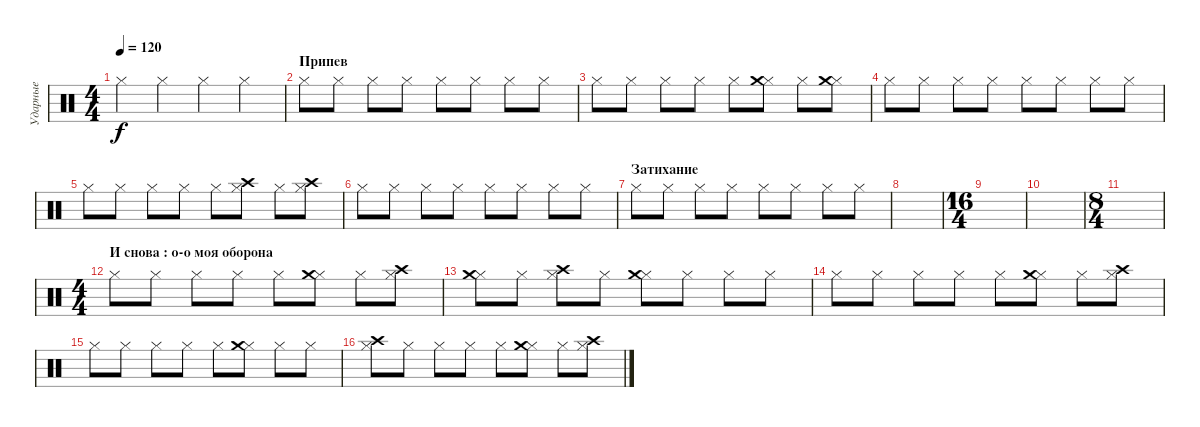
\track ("Ударные" "Ударные") {instrument percussion}
\staff {score}
\articulation defaults
\ts (4 4)
\tempo 120
\clef neutral
\ks c "Hi-Hat (closed)".4{dy f} "Hi-Hat (closed)".4 "Hi-Hat (closed)".4 "Hi-Hat (closed)".4
|
\section ("" "Припев")
"Hi-Hat (closed)".8 "Hi-Hat (closed)".8 "Hi-Hat (closed)".8 "Hi-Hat (closed)".8 "Hi-Hat (closed)".8 "Hi-Hat (closed)".8 "Hi-Hat (closed)".8 "Hi-Hat (closed)".8 |
"Hi-Hat (closed)".8 "Hi-Hat (closed)".8 "Hi-Hat (closed)".8 "Hi-Hat (closed)".8 "Hi-Hat (closed)".8 ("Hi-Hat (closed)" "Crash medium (hit)").8 "Hi-Hat (closed)".8 ("Hi-Hat (closed)" "Crash medium (hit)").8 |
"Hi-Hat (closed)".8 "Hi-Hat (closed)".8 "Hi-Hat (closed)".8 "Hi-Hat (closed)".8 "Hi-Hat (closed)".8 "Hi-Hat (closed)".8 "Hi-Hat (closed)".8 "Hi-Hat (closed)".8 |
"Hi-Hat (closed)".8 "Hi-Hat (closed)".8 "Hi-Hat (closed)".8 "Hi-Hat (closed)".8 "Hi-Hat (closed)".8 ("Hi-Hat (closed)" "Crash high (hit)").8 "Hi-Hat (closed)".8 ("Hi-Hat (closed)" "Crash high (hit)").8 |
"Hi-Hat (closed)".8 "Hi-Hat (closed)".8 "Hi-Hat (closed)".8 "Hi-Hat (closed)".8 "Hi-Hat (closed)".8 "Hi-Hat (closed)".8 "Hi-Hat (closed)".8 "Hi-Hat (closed)".8 |
\section ("" "Затихание")
"Hi-Hat (closed)".8 "Hi-Hat (closed)".8 "Hi-Hat (closed)".8 "Hi-Hat (closed)".8 "Hi-Hat (closed)".8 "Hi-Hat (closed)".8 "Hi-Hat (closed)".8 "Hi-Hat (closed)".8 |
|
\ts (16 4)
|
|
\ts (8 4)
|
\ts (4 4)
\section ("" "И снова : о-о моя оборона")
"Hi-Hat (closed)".8 "Hi-Hat (closed)".8 "Hi-Hat (closed)".8 "Hi-Hat (closed)".8 "Hi-Hat (closed)".8 ("Hi-Hat (closed)" "Crash medium (hit)").8 "Hi-Hat (closed)".8 ("Hi-Hat (closed)" "Crash high (hit)").8 |
("Hi-Hat (closed)" "Crash medium (hit)").8 "Hi-Hat (closed)".8 ("Hi-Hat (closed)" "Crash high (hit)").8 "Hi-Hat (closed)".8 ("Hi-Hat (closed)" "Crash medium (hit)").8 "Hi-Hat (closed)".8 "Hi-Hat (closed)".8 "Hi-Hat (closed)".8 |
"Hi-Hat (closed)".8 "Hi-Hat (closed)".8 "Hi-Hat (closed)".8 "Hi-Hat (closed)".8 "Hi-Hat (closed)".8 ("Hi-Hat (closed)" "Crash medium (hit)").8 "Hi-Hat (closed)".8 ("Hi-Hat (closed)" "Crash high (hit)").8 |
"Hi-Hat (closed)".8 "Hi-Hat (closed)".8 "Hi-Hat (closed)".8 "Hi-Hat (closed)".8 "Hi-Hat (closed)".8 ("Hi-Hat (closed)" "Crash medium (hit)").8 "Hi-Hat (closed)".8 "Hi-Hat (closed)".8 |
("Hi-Hat (closed)" "Crash high (hit)").8 "Hi-Hat (closed)".8 "Hi-Hat (closed)".8 "Hi-Hat (closed)".8 "Hi-Hat (closed)".8 ("Hi-Hat (closed)" "Crash medium (hit)").8 "Hi-Hat (closed)".8 ("Hi-Hat (closed)" "Crash high (hit)").8
